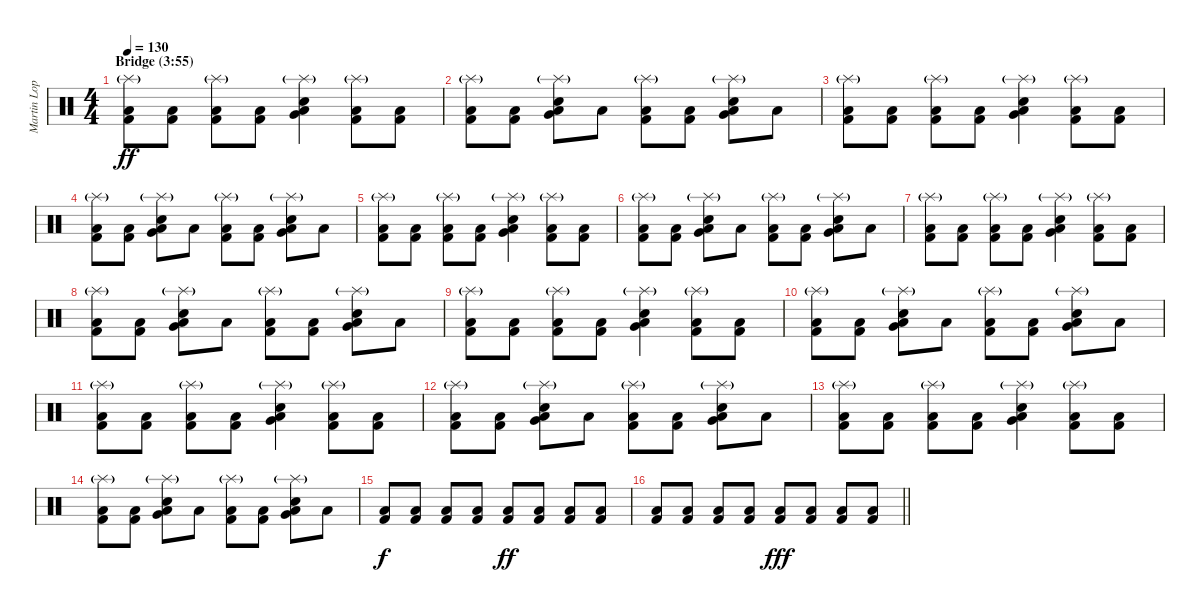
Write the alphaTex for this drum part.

\track ("Martin Lopez" "Martin Lop") {instrument percussion}
\staff {score}
\articulation defaults
\ts (4 4)
\section ("" "Bridge (3:55)")
\tempo 130
\clef neutral
\ks c
("Splash (hit)"{g} "Kick (hit) 2" "Low Floor Tom (hit)").8{dy ff} ("Kick (hit) 2" "Low Floor Tom (hit)").8 ("Splash (hit)"{g} "Kick (hit) 2" "Low Floor Tom (hit)").8 ("Kick (hit) 2" "Low Floor Tom (hit)").8 ("Splash (hit)"{g} "Very Low Tom (hit)" "Snare (hit) 2" "Low Floor Tom (hit)").4 ("Splash (hit)"{g} "Kick (hit) 2" "Low Floor Tom (hit)").8 ("Kick (hit) 2" "Low Floor Tom (hit)").8 |
("Splash (hit)"{g} "Kick (hit) 2" "Low Floor Tom (hit)").8 ("Kick (hit) 2" "Low Floor Tom (hit)").8 ("Splash (hit)"{g} "Very Low Tom (hit)" "Snare (hit) 2" "Low Floor Tom (hit)").8 "Low Floor Tom (hit)".8 ("Splash (hit)"{g} "Kick (hit) 2" "Low Floor Tom (hit)").8 ("Kick (hit) 2" "Low Floor Tom (hit)").8 ("Splash (hit)"{g} "Very Low Tom (hit)" "Snare (hit) 2" "Low Floor Tom (hit)").8 "Low Floor Tom (hit)".8 |
("Splash (hit)"{g} "Kick (hit) 2" "Low Floor Tom (hit)").8 ("Kick (hit) 2" "Low Floor Tom (hit)").8 ("Splash (hit)"{g} "Kick (hit) 2" "Low Floor Tom (hit)").8 ("Kick (hit) 2" "Low Floor Tom (hit)").8 ("Splash (hit)"{g} "Very Low Tom (hit)" "Snare (hit) 2" "Low Floor Tom (hit)").4 ("Splash (hit)"{g} "Kick (hit) 2" "Low Floor Tom (hit)").8 ("Kick (hit) 2" "Low Floor Tom (hit)").8 |
("Splash (hit)"{g} "Kick (hit) 2" "Low Floor Tom (hit)").8 ("Kick (hit) 2" "Low Floor Tom (hit)").8 ("Splash (hit)"{g} "Very Low Tom (hit)" "Snare (hit) 2" "Low Floor Tom (hit)").8 "Low Floor Tom (hit)".8 ("Splash (hit)"{g} "Kick (hit) 2" "Low Floor Tom (hit)").8 ("Kick (hit) 2" "Low Floor Tom (hit)").8 ("Splash (hit)"{g} "Very Low Tom (hit)" "Snare (hit) 2" "Low Floor Tom (hit)").8 "Low Floor Tom (hit)".8 |
("Splash (hit)"{g} "Kick (hit) 2" "Low Floor Tom (hit)").8 ("Kick (hit) 2" "Low Floor Tom (hit)").8 ("Splash (hit)"{g} "Kick (hit) 2" "Low Floor Tom (hit)").8 ("Kick (hit) 2" "Low Floor Tom (hit)").8 ("Splash (hit)"{g} "Very Low Tom (hit)" "Snare (hit) 2" "Low Floor Tom (hit)").4 ("Splash (hit)"{g} "Kick (hit) 2" "Low Floor Tom (hit)").8 ("Kick (hit) 2" "Low Floor Tom (hit)").8 |
("Splash (hit)"{g} "Kick (hit) 2" "Low Floor Tom (hit)").8 ("Kick (hit) 2" "Low Floor Tom (hit)").8 ("Splash (hit)"{g} "Very Low Tom (hit)" "Snare (hit) 2" "Low Floor Tom (hit)").8 "Low Floor Tom (hit)".8 ("Splash (hit)"{g} "Kick (hit) 2" "Low Floor Tom (hit)").8 ("Kick (hit) 2" "Low Floor Tom (hit)").8 ("Splash (hit)"{g} "Very Low Tom (hit)" "Snare (hit) 2" "Low Floor Tom (hit)").8 "Low Floor Tom (hit)".8 |
("Splash (hit)"{g} "Kick (hit) 2" "Low Floor Tom (hit)").8 ("Kick (hit) 2" "Low Floor Tom (hit)").8 ("Splash (hit)"{g} "Kick (hit) 2" "Low Floor Tom (hit)").8 ("Kick (hit) 2" "Low Floor Tom (hit)").8 ("Splash (hit)"{g} "Very Low Tom (hit)" "Snare (hit) 2" "Low Floor Tom (hit)").4 ("Splash (hit)"{g} "Kick (hit) 2" "Low Floor Tom (hit)").8 ("Kick (hit) 2" "Low Floor Tom (hit)").8 |
("Splash (hit)"{g} "Kick (hit) 2" "Low Floor Tom (hit)").8 ("Kick (hit) 2" "Low Floor Tom (hit)").8 ("Splash (hit)"{g} "Very Low Tom (hit)" "Snare (hit) 2" "Low Floor Tom (hit)").8 "Low Floor Tom (hit)".8 ("Splash (hit)"{g} "Kick (hit) 2" "Low Floor Tom (hit)").8 ("Kick (hit) 2" "Low Floor Tom (hit)").8 ("Splash (hit)"{g} "Very Low Tom (hit)" "Snare (hit) 2" "Low Floor Tom (hit)").8 "Low Floor Tom (hit)".8 |
("Splash (hit)"{g} "Kick (hit) 2" "Low Floor Tom (hit)").8 ("Kick (hit) 2" "Low Floor Tom (hit)").8 ("Splash (hit)"{g} "Kick (hit) 2" "Low Floor Tom (hit)").8 ("Kick (hit) 2" "Low Floor Tom (hit)").8 ("Splash (hit)"{g} "Very Low Tom (hit)" "Snare (hit) 2" "Low Floor Tom (hit)").4 ("Splash (hit)"{g} "Kick (hit) 2" "Low Floor Tom (hit)").8 ("Kick (hit) 2" "Low Floor Tom (hit)").8 |
("Splash (hit)"{g} "Kick (hit) 2" "Low Floor Tom (hit)").8 ("Kick (hit) 2" "Low Floor Tom (hit)").8 ("Splash (hit)"{g} "Very Low Tom (hit)" "Snare (hit) 2" "Low Floor Tom (hit)").8 "Low Floor Tom (hit)".8 ("Splash (hit)"{g} "Kick (hit) 2" "Low Floor Tom (hit)").8 ("Kick (hit) 2" "Low Floor Tom (hit)").8 ("Splash (hit)"{g} "Very Low Tom (hit)" "Snare (hit) 2" "Low Floor Tom (hit)").8 "Low Floor Tom (hit)".8 |
("Splash (hit)"{g} "Kick (hit) 2" "Low Floor Tom (hit)").8 ("Kick (hit) 2" "Low Floor Tom (hit)").8 ("Splash (hit)"{g} "Kick (hit) 2" "Low Floor Tom (hit)").8 ("Kick (hit) 2" "Low Floor Tom (hit)").8 ("Splash (hit)"{g} "Very Low Tom (hit)" "Snare (hit) 2" "Low Floor Tom (hit)").4 ("Splash (hit)"{g} "Kick (hit) 2" "Low Floor Tom (hit)").8 ("Kick (hit) 2" "Low Floor Tom (hit)").8 |
("Splash (hit)"{g} "Kick (hit) 2" "Low Floor Tom (hit)").8 ("Kick (hit) 2" "Low Floor Tom (hit)").8 ("Splash (hit)"{g} "Very Low Tom (hit)" "Snare (hit) 2" "Low Floor Tom (hit)").8 "Low Floor Tom (hit)".8 ("Splash (hit)"{g} "Kick (hit) 2" "Low Floor Tom (hit)").8 ("Kick (hit) 2" "Low Floor Tom (hit)").8 ("Splash (hit)"{g} "Very Low Tom (hit)" "Snare (hit) 2" "Low Floor Tom (hit)").8 "Low Floor Tom (hit)".8 |
("Splash (hit)"{g} "Kick (hit) 2" "Low Floor Tom (hit)").8 ("Kick (hit) 2" "Low Floor Tom (hit)").8 ("Splash (hit)"{g} "Kick (hit) 2" "Low Floor Tom (hit)").8 ("Kick (hit) 2" "Low Floor Tom (hit)").8 ("Splash (hit)"{g} "Very Low Tom (hit)" "Snare (hit) 2" "Low Floor Tom (hit)").4 ("Splash (hit)"{g} "Kick (hit) 2" "Low Floor Tom (hit)").8 ("Kick (hit) 2" "Low Floor Tom (hit)").8 |
("Splash (hit)"{g} "Kick (hit) 2" "Low Floor Tom (hit)").8 ("Kick (hit) 2" "Low Floor Tom (hit)").8 ("Splash (hit)"{g} "Very Low Tom (hit)" "Snare (hit) 2" "Low Floor Tom (hit)").8 "Low Floor Tom (hit)".8 ("Splash (hit)"{g} "Kick (hit) 2" "Low Floor Tom (hit)").8 ("Kick (hit) 2" "Low Floor Tom (hit)").8 ("Splash (hit)"{g} "Very Low Tom (hit)" "Snare (hit) 2" "Low Floor Tom (hit)").8 "Low Floor Tom (hit)".8 |
("Kick (hit) 2" "Low Floor Tom (hit)").8{dy f} ("Kick (hit) 2" "Low Floor Tom (hit)").8 ("Kick (hit) 2" "Low Floor Tom (hit)").8 ("Kick (hit) 2" "Low Floor Tom (hit)").8 ("Kick (hit) 2" "Low Floor Tom (hit)").8{dy ff} ("Kick (hit) 2" "Low Floor Tom (hit)").8 ("Kick (hit) 2" "Low Floor Tom (hit)").8 ("Kick (hit) 2" "Low Floor Tom (hit)").8 |
\barLineRight lightlight
("Kick (hit) 2" "Low Floor Tom (hit)").8 ("Kick (hit) 2" "Low Floor Tom (hit)").8 ("Kick (hit) 2" "Low Floor Tom (hit)").8 ("Kick (hit) 2" "Low Floor Tom (hit)").8 ("Kick (hit) 2" "Low Floor Tom (hit)").8{dy fff} ("Kick (hit) 2" "Low Floor Tom (hit)").8 ("Kick (hit) 2" "Low Floor Tom (hit)").8 ("Kick (hit) 2" "Low Floor Tom (hit)").8
